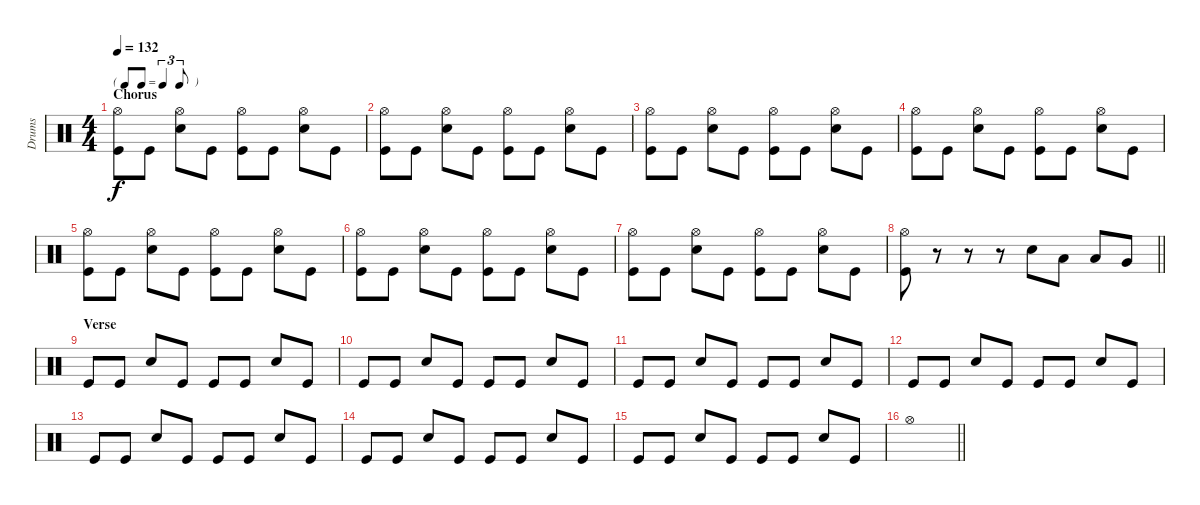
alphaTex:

\track ("Drums" "Drums") {instrument percussion}
\staff {score}
\articulation defaults
\ts (4 4)
\tf triplet8th
\section ("" "Chorus")
\tempo 132
\clef neutral
\ks c
("Hi-Hat (open)" "Kick (hit)").8{dy f} "Kick (hit)".8 ("Hi-Hat (open)" "Snare (hit) 2").8 "Kick (hit)".8 ("Hi-Hat (open)" "Kick (hit)").8 "Kick (hit)".8 ("Hi-Hat (open)" "Snare (hit) 2").8 "Kick (hit)".8 |
("Hi-Hat (open)" "Kick (hit)").8 "Kick (hit)".8 ("Hi-Hat (open)" "Snare (hit) 2").8 "Kick (hit)".8 ("Hi-Hat (open)" "Kick (hit)").8 "Kick (hit)".8 ("Hi-Hat (open)" "Snare (hit) 2").8 "Kick (hit)".8 |
("Hi-Hat (open)" "Kick (hit)").8 "Kick (hit)".8 ("Hi-Hat (open)" "Snare (hit) 2").8 "Kick (hit)".8 ("Hi-Hat (open)" "Kick (hit)").8 "Kick (hit)".8 ("Hi-Hat (open)" "Snare (hit) 2").8 "Kick (hit)".8 |
("Hi-Hat (open)" "Kick (hit)").8 "Kick (hit)".8 ("Hi-Hat (open)" "Snare (hit) 2").8 "Kick (hit)".8 ("Hi-Hat (open)" "Kick (hit)").8 "Kick (hit)".8 ("Hi-Hat (open)" "Snare (hit) 2").8 "Kick (hit)".8 |
("Hi-Hat (open)" "Kick (hit)").8 "Kick (hit)".8 ("Hi-Hat (open)" "Snare (hit) 2").8 "Kick (hit)".8 ("Hi-Hat (open)" "Kick (hit)").8 "Kick (hit)".8 ("Hi-Hat (open)" "Snare (hit) 2").8 "Kick (hit)".8 |
("Hi-Hat (open)" "Kick (hit)").8 "Kick (hit)".8 ("Hi-Hat (open)" "Snare (hit) 2").8 "Kick (hit)".8 ("Hi-Hat (open)" "Kick (hit)").8 "Kick (hit)".8 ("Hi-Hat (open)" "Snare (hit) 2").8 "Kick (hit)".8 |
("Hi-Hat (open)" "Kick (hit)").8 "Kick (hit)".8 ("Hi-Hat (open)" "Snare (hit) 2").8 "Kick (hit)".8 ("Hi-Hat (open)" "Kick (hit)").8 "Kick (hit)".8 ("Hi-Hat (open)" "Snare (hit) 2").8 "Kick (hit)".8 |
\barLineRight lightlight
("Hi-Hat (open)" "Kick (hit)").8 r.8 r.8 r.8 "Snare (hit) 2".8 "Low Tom (hit)".8 "Low Tom (hit)".8 "Very Low Tom (hit)".8 |
\section ("" "Verse")
"Kick (hit)".8 "Kick (hit)".8 "Snare (hit) 2".8 "Kick (hit)".8 "Kick (hit)".8 "Kick (hit)".8 "Snare (hit) 2".8 "Kick (hit)".8 |
"Kick (hit)".8 "Kick (hit)".8 "Snare (hit) 2".8 "Kick (hit)".8 "Kick (hit)".8 "Kick (hit)".8 "Snare (hit) 2".8 "Kick (hit)".8 |
"Kick (hit)".8 "Kick (hit)".8 "Snare (hit) 2".8 "Kick (hit)".8 "Kick (hit)".8 "Kick (hit)".8 "Snare (hit) 2".8 "Kick (hit)".8 |
"Kick (hit)".8 "Kick (hit)".8 "Snare (hit) 2".8 "Kick (hit)".8 "Kick (hit)".8 "Kick (hit)".8 "Snare (hit) 2".8 "Kick (hit)".8 |
"Kick (hit)".8 "Kick (hit)".8 "Snare (hit) 2".8 "Kick (hit)".8 "Kick (hit)".8 "Kick (hit)".8 "Snare (hit) 2".8 "Kick (hit)".8 |
"Kick (hit)".8 "Kick (hit)".8 "Snare (hit) 2".8 "Kick (hit)".8 "Kick (hit)".8 "Kick (hit)".8 "Snare (hit) 2".8 "Kick (hit)".8 |
"Kick (hit)".8 "Kick (hit)".8 "Snare (hit) 2".8 "Kick (hit)".8 "Kick (hit)".8 "Kick (hit)".8 "Snare (hit) 2".8 "Kick (hit)".8 |
\barLineRight lightlight "Hi-Hat (open)".1
